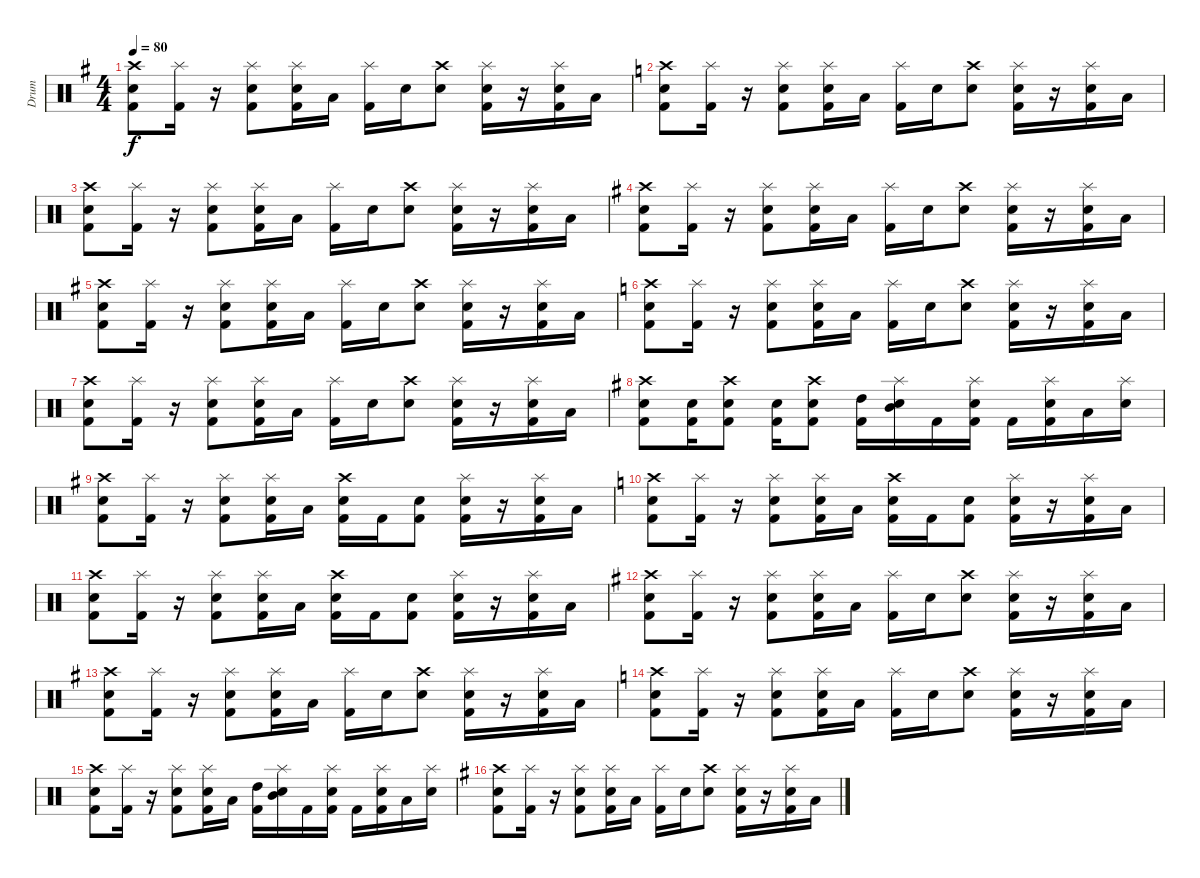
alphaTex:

\track ("Drum" "Drum") {instrument percussion}
\staff {score}
\articulation defaults
\ts (4 4)
\tempo 80
\clef neutral
\ks eminor
("Electric Snare (hit)" "Kick (hit) 2" "Crash high (hit)").8{dy f} ("Kick (hit) 2" "Splash (hit)").16 r.16 ("Electric Snare (hit)" "Kick (hit) 2" "Splash (hit)").8 ("Electric Snare (hit)" "Kick (hit) 2" "Splash (hit)").16 "Low Tom (hit)".16 ("Kick (hit) 2" "Splash (hit)").16 "Electric Snare (hit)".16 ("Electric Snare (hit)" "Crash high (hit)").8 ("Electric Snare (hit)" "Kick (hit) 2" "Splash (hit)").16 r.16 ("Electric Snare (hit)" "Kick (hit) 2" "Splash (hit)").16 "Low Tom (hit)".16 |
\ks c
("Electric Snare (hit)" "Kick (hit) 2" "Crash high (hit)").8 ("Kick (hit) 2" "Splash (hit)").16 r.16 ("Electric Snare (hit)" "Kick (hit) 2" "Splash (hit)").8 ("Electric Snare (hit)" "Kick (hit) 2" "Splash (hit)").16 "Low Tom (hit)".16 ("Kick (hit) 2" "Splash (hit)").16 "Electric Snare (hit)".16 ("Electric Snare (hit)" "Crash high (hit)").8 ("Electric Snare (hit)" "Kick (hit) 2" "Splash (hit)").16 r.16 ("Electric Snare (hit)" "Kick (hit) 2" "Splash (hit)").16 "Low Tom (hit)".16 |
("Electric Snare (hit)" "Kick (hit) 2" "Crash high (hit)").8 ("Kick (hit) 2" "Splash (hit)").16 r.16 ("Electric Snare (hit)" "Kick (hit) 2" "Splash (hit)").8 ("Electric Snare (hit)" "Kick (hit) 2" "Splash (hit)").16 "Low Tom (hit)".16 ("Kick (hit) 2" "Splash (hit)").16 "Electric Snare (hit)".16 ("Electric Snare (hit)" "Crash high (hit)").8 ("Electric Snare (hit)" "Kick (hit) 2" "Splash (hit)").16 r.16 ("Electric Snare (hit)" "Kick (hit) 2" "Splash (hit)").16 "Low Tom (hit)".16 |
\ks eminor
("Electric Snare (hit)" "Kick (hit) 2" "Crash high (hit)").8 ("Kick (hit) 2" "Splash (hit)").16 r.16 ("Electric Snare (hit)" "Kick (hit) 2" "Splash (hit)").8 ("Electric Snare (hit)" "Kick (hit) 2" "Splash (hit)").16 "Low Tom (hit)".16 ("Kick (hit) 2" "Splash (hit)").16 "Electric Snare (hit)".16 ("Electric Snare (hit)" "Crash high (hit)").8 ("Electric Snare (hit)" "Kick (hit) 2" "Splash (hit)").16 r.16 ("Electric Snare (hit)" "Kick (hit) 2" "Splash (hit)").16 "Low Tom (hit)".16 |
("Electric Snare (hit)" "Kick (hit) 2" "Crash high (hit)").8 ("Kick (hit) 2" "Splash (hit)").16 r.16 ("Electric Snare (hit)" "Kick (hit) 2" "Splash (hit)").8 ("Electric Snare (hit)" "Kick (hit) 2" "Splash (hit)").16 "Low Tom (hit)".16 ("Kick (hit) 2" "Splash (hit)").16 "Electric Snare (hit)".16 ("Electric Snare (hit)" "Crash high (hit)").8 ("Electric Snare (hit)" "Kick (hit) 2" "Splash (hit)").16 r.16 ("Electric Snare (hit)" "Kick (hit) 2" "Splash (hit)").16 "Low Tom (hit)".16 |
\ks c
("Electric Snare (hit)" "Kick (hit) 2" "Crash high (hit)").8 ("Kick (hit) 2" "Splash (hit)").16 r.16 ("Electric Snare (hit)" "Kick (hit) 2" "Splash (hit)").8 ("Electric Snare (hit)" "Kick (hit) 2" "Splash (hit)").16 "Low Tom (hit)".16 ("Kick (hit) 2" "Splash (hit)").16 "Electric Snare (hit)".16 ("Electric Snare (hit)" "Crash high (hit)").8 ("Electric Snare (hit)" "Kick (hit) 2" "Splash (hit)").16 r.16 ("Electric Snare (hit)" "Kick (hit) 2" "Splash (hit)").16 "Low Tom (hit)".16 |
("Electric Snare (hit)" "Kick (hit) 2" "Crash high (hit)").8 ("Kick (hit) 2" "Splash (hit)").16 r.16 ("Electric Snare (hit)" "Kick (hit) 2" "Splash (hit)").8 ("Electric Snare (hit)" "Kick (hit) 2" "Splash (hit)").16 "Low Tom (hit)".16 ("Kick (hit) 2" "Splash (hit)").16 "Electric Snare (hit)".16 ("Electric Snare (hit)" "Crash high (hit)").8 ("Electric Snare (hit)" "Kick (hit) 2" "Splash (hit)").16 r.16 ("Electric Snare (hit)" "Kick (hit) 2" "Splash (hit)").16 "Low Tom (hit)".16 |
\ks eminor
("Electric Snare (hit)" "Kick (hit) 2" "Crash high (hit)").8 ("Electric Snare (hit)" "Kick (hit) 2").16 ("Electric Snare (hit)" "Kick (hit) 2" "Crash high (hit)").8 ("Electric Snare (hit)" "Kick (hit) 2").16 ("Electric Snare (hit)" "Kick (hit) 2" "Crash high (hit)").8 ("High Tom (hit)" "Kick (hit) 2").16 ("Electric Snare (hit)" "Mid Tom (hit)" "Splash (hit)").16 "Kick (hit) 2".16 ("Electric Snare (hit)" "Kick (hit) 2" "Splash (hit)").16 "Kick (hit) 2".16 ("Electric Snare (hit)" "Kick (hit) 2" "Splash (hit)").16 "Low Tom (hit)".16 ("Electric Snare (hit)" "Splash (hit)").16 |
("Electric Snare (hit)" "Kick (hit) 2" "Crash high (hit)").8 ("Kick (hit) 2" "Splash (hit)").16 r.16 ("Electric Snare (hit)" "Kick (hit) 2" "Splash (hit)").8 ("Electric Snare (hit)" "Kick (hit) 2" "Splash (hit)").16 "Low Tom (hit)".16 ("Electric Snare (hit)" "Kick (hit) 2" "Crash high (hit)").16 "Kick (hit) 2".16 ("Electric Snare (hit)" "Kick (hit) 2").8 ("Electric Snare (hit)" "Kick (hit) 2" "Splash (hit)").16 r.16 ("Electric Snare (hit)" "Kick (hit) 2" "Splash (hit)").16 "Low Tom (hit)".16 |
\ks c
("Electric Snare (hit)" "Kick (hit) 2" "Crash high (hit)").8 ("Kick (hit) 2" "Splash (hit)").16 r.16 ("Electric Snare (hit)" "Kick (hit) 2" "Splash (hit)").8 ("Electric Snare (hit)" "Kick (hit) 2" "Splash (hit)").16 "Low Tom (hit)".16 ("Electric Snare (hit)" "Kick (hit) 2" "Crash high (hit)").16 "Kick (hit) 2".16 ("Electric Snare (hit)" "Kick (hit) 2").8 ("Electric Snare (hit)" "Kick (hit) 2" "Splash (hit)").16 r.16 ("Electric Snare (hit)" "Kick (hit) 2" "Splash (hit)").16 "Low Tom (hit)".16 |
("Electric Snare (hit)" "Kick (hit) 2" "Crash high (hit)").8 ("Kick (hit) 2" "Splash (hit)").16 r.16 ("Electric Snare (hit)" "Kick (hit) 2" "Splash (hit)").8 ("Electric Snare (hit)" "Kick (hit) 2" "Splash (hit)").16 "Low Tom (hit)".16 ("Electric Snare (hit)" "Kick (hit) 2" "Crash high (hit)").16 "Kick (hit) 2".16 ("Electric Snare (hit)" "Kick (hit) 2").8 ("Electric Snare (hit)" "Kick (hit) 2" "Splash (hit)").16 r.16 ("Electric Snare (hit)" "Kick (hit) 2" "Splash (hit)").16 "Low Tom (hit)".16 |
\ks eminor
("Electric Snare (hit)" "Kick (hit) 2" "Crash high (hit)").8 ("Kick (hit) 2" "Splash (hit)").16 r.16 ("Electric Snare (hit)" "Kick (hit) 2" "Splash (hit)").8 ("Electric Snare (hit)" "Kick (hit) 2" "Splash (hit)").16 "Low Tom (hit)".16 ("Kick (hit) 2" "Splash (hit)").16 "Electric Snare (hit)".16 ("Electric Snare (hit)" "Crash high (hit)").8 ("Electric Snare (hit)" "Kick (hit) 2" "Splash (hit)").16 r.16 ("Electric Snare (hit)" "Kick (hit) 2" "Splash (hit)").16 "Low Tom (hit)".16 |
("Electric Snare (hit)" "Kick (hit) 2" "Crash high (hit)").8 ("Kick (hit) 2" "Splash (hit)").16 r.16 ("Electric Snare (hit)" "Kick (hit) 2" "Splash (hit)").8 ("Electric Snare (hit)" "Kick (hit) 2" "Splash (hit)").16 "Low Tom (hit)".16 ("Kick (hit) 2" "Splash (hit)").16 "Electric Snare (hit)".16 ("Electric Snare (hit)" "Crash high (hit)").8 ("Electric Snare (hit)" "Kick (hit) 2" "Splash (hit)").16 r.16 ("Electric Snare (hit)" "Kick (hit) 2" "Splash (hit)").16 "Low Tom (hit)".16 |
\ks c
("Electric Snare (hit)" "Kick (hit) 2" "Crash high (hit)").8 ("Kick (hit) 2" "Splash (hit)").16 r.16 ("Electric Snare (hit)" "Kick (hit) 2" "Splash (hit)").8 ("Electric Snare (hit)" "Kick (hit) 2" "Splash (hit)").16 "Low Tom (hit)".16 ("Kick (hit) 2" "Splash (hit)").16 "Electric Snare (hit)".16 ("Electric Snare (hit)" "Crash high (hit)").8 ("Electric Snare (hit)" "Kick (hit) 2" "Splash (hit)").16 r.16 ("Electric Snare (hit)" "Kick (hit) 2" "Splash (hit)").16 "Low Tom (hit)".16 |
("Electric Snare (hit)" "Kick (hit) 2" "Crash high (hit)").8 ("Kick (hit) 2" "Splash (hit)").16 r.16 ("Electric Snare (hit)" "Kick (hit) 2" "Splash (hit)").8 ("Electric Snare (hit)" "Kick (hit) 2" "Splash (hit)").16 "Low Tom (hit)".16 ("High Tom (hit)" "Kick (hit) 2").16 ("Electric Snare (hit)" "Mid Tom (hit)" "Splash (hit)").16 "Kick (hit) 2".16 ("Electric Snare (hit)" "Kick (hit) 2" "Splash (hit)").16 "Kick (hit) 2".16 ("Electric Snare (hit)" "Kick (hit) 2" "Splash (hit)").16 "Low Tom (hit)".16 ("Electric Snare (hit)" "Splash (hit)").16 |
\ks eminor
("Electric Snare (hit)" "Kick (hit) 2" "Crash high (hit)").8 ("Kick (hit) 2" "Splash (hit)").16 r.16 ("Electric Snare (hit)" "Kick (hit) 2" "Splash (hit)").8 ("Electric Snare (hit)" "Kick (hit) 2" "Splash (hit)").16 "Low Tom (hit)".16 ("Kick (hit) 2" "Splash (hit)").16 "Electric Snare (hit)".16 ("Electric Snare (hit)" "Crash high (hit)").8 ("Electric Snare (hit)" "Kick (hit) 2" "Splash (hit)").16 r.16 ("Electric Snare (hit)" "Kick (hit) 2" "Splash (hit)").16 "Low Tom (hit)".16
